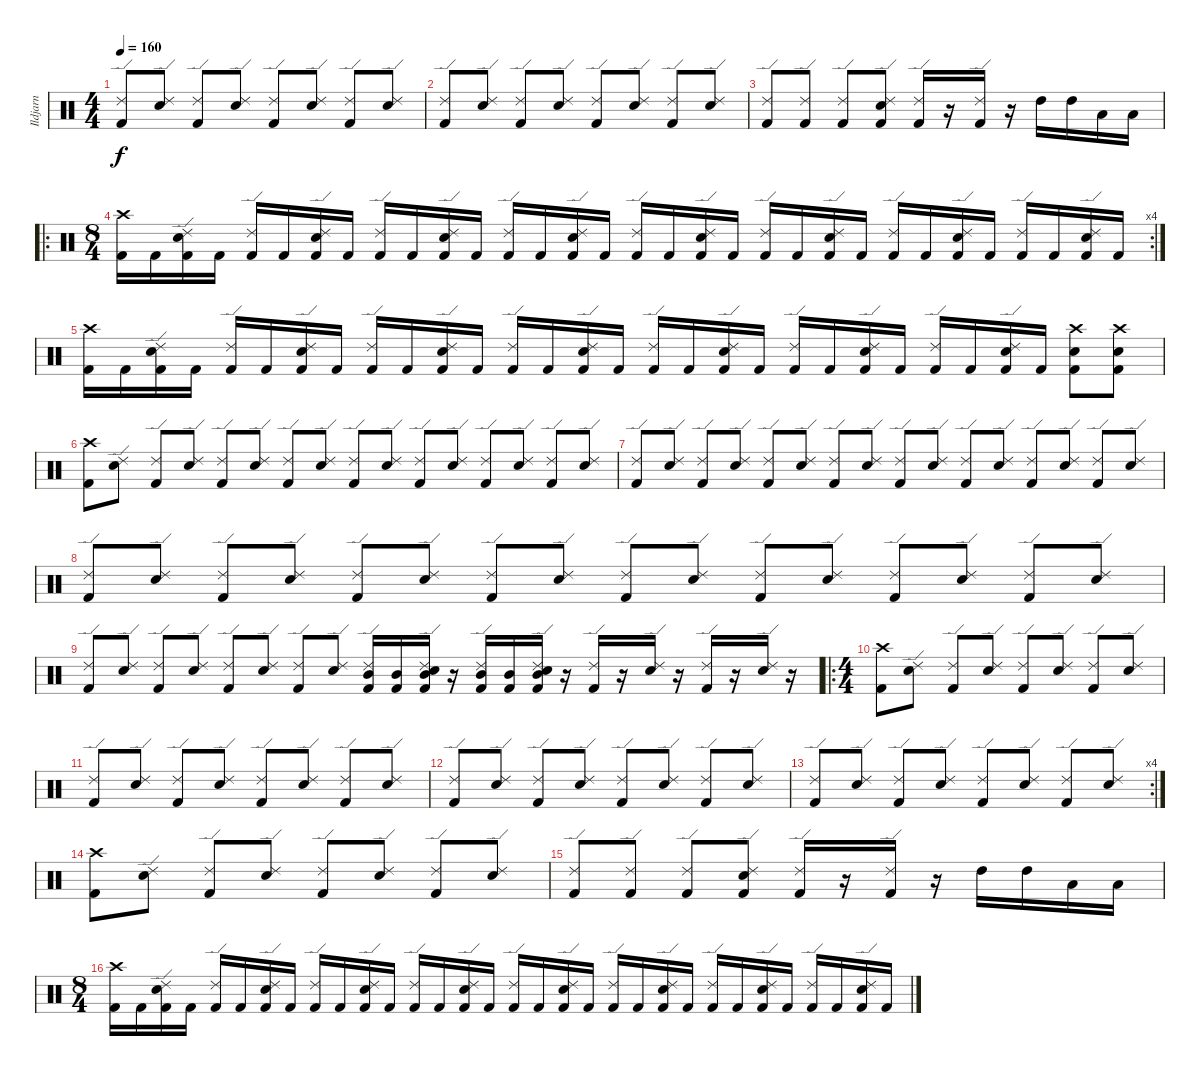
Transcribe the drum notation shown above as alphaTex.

\track ("Ildjarn" "Ildjarn") {instrument percussion}
\staff {score}
\articulation defaults
\ts (4 4)
\tempo 160
\clef neutral
\ks c
("Ride (edge) 2" "Kick (hit) 2").8{dy f} ("Ride (edge) 2" "Snare (hit) 2").8 ("Ride (edge) 2" "Kick (hit) 2").8 ("Ride (edge) 2" "Snare (hit) 2").8 ("Ride (edge) 2" "Kick (hit) 2").8 ("Ride (edge) 2" "Snare (hit) 2").8 ("Ride (edge) 2" "Kick (hit) 2").8 ("Ride (edge) 2" "Snare (hit) 2").8 |
("Ride (edge) 2" "Kick (hit) 2").8 ("Ride (edge) 2" "Snare (hit) 2").8 ("Ride (edge) 2" "Kick (hit) 2").8 ("Ride (edge) 2" "Snare (hit) 2").8 ("Ride (edge) 2" "Kick (hit) 2").8 ("Ride (edge) 2" "Snare (hit) 2").8 ("Ride (edge) 2" "Kick (hit) 2").8 ("Ride (edge) 2" "Snare (hit) 2").8 |
("Ride (edge) 2" "Kick (hit) 2").8 ("Ride (edge) 2" "Kick (hit) 2").8 ("Ride (edge) 2" "Kick (hit) 2").8 ("Ride (edge) 2" "Snare (hit) 2" "Kick (hit) 2").8 ("Ride (edge) 2" "Kick (hit) 2").16 r.16 ("Ride (edge) 2" "Kick (hit) 2").16 r.16 "High Tom (hit)".16 "High Tom (hit)".16 "Low Tom (hit)".16 "Low Tom (hit)".16 |
\ro
\rc 4
\ts (8 4)
("Crash high (hit)" "Kick (hit) 2").16 "Kick (hit) 2".16 ("Ride (edge) 2" "Snare (hit) 2" "Kick (hit) 2").16 "Kick (hit) 2".16 ("Ride (edge) 2" "Kick (hit) 2").16 "Kick (hit) 2".16 ("Ride (edge) 2" "Snare (hit) 2" "Kick (hit) 2").16 "Kick (hit) 2".16 ("Ride (edge) 2" "Kick (hit) 2").16 "Kick (hit) 2".16 ("Ride (edge) 2" "Snare (hit) 2" "Kick (hit) 2").16 "Kick (hit) 2".16 ("Ride (edge) 2" "Kick (hit) 2").16 "Kick (hit) 2".16 ("Ride (edge) 2" "Snare (hit) 2" "Kick (hit) 2").16 "Kick (hit) 2".16 ("Ride (edge) 2" "Kick (hit) 2").16 "Kick (hit) 2".16 ("Ride (edge) 2" "Snare (hit) 2" "Kick (hit) 2").16 "Kick (hit) 2".16 ("Ride (edge) 2" "Kick (hit) 2").16 "Kick (hit) 2".16 ("Ride (edge) 2" "Snare (hit) 2" "Kick (hit) 2").16 "Kick (hit) 2".16 ("Ride (edge) 2" "Kick (hit) 2").16 "Kick (hit) 2".16 ("Ride (edge) 2" "Snare (hit) 2" "Kick (hit) 2").16 "Kick (hit) 2".16 ("Ride (edge) 2" "Kick (hit) 2").16 "Kick (hit) 2".16 ("Ride (edge) 2" "Snare (hit) 2" "Kick (hit) 2").16 "Kick (hit) 2".16 |
("Crash high (hit)" "Kick (hit) 2").16 "Kick (hit) 2".16 ("Ride (edge) 2" "Snare (hit) 2" "Kick (hit) 2").16 "Kick (hit) 2".16 ("Ride (edge) 2" "Kick (hit) 2").16 "Kick (hit) 2".16 ("Ride (edge) 2" "Snare (hit) 2" "Kick (hit) 2").16 "Kick (hit) 2".16 ("Ride (edge) 2" "Kick (hit) 2").16 "Kick (hit) 2".16 ("Ride (edge) 2" "Snare (hit) 2" "Kick (hit) 2").16 "Kick (hit) 2".16 ("Ride (edge) 2" "Kick (hit) 2").16 "Kick (hit) 2".16 ("Ride (edge) 2" "Snare (hit) 2" "Kick (hit) 2").16 "Kick (hit) 2".16 ("Ride (edge) 2" "Kick (hit) 2").16 "Kick (hit) 2".16 ("Ride (edge) 2" "Snare (hit) 2" "Kick (hit) 2").16 "Kick (hit) 2".16 ("Ride (edge) 2" "Kick (hit) 2").16 "Kick (hit) 2".16 ("Ride (edge) 2" "Snare (hit) 2" "Kick (hit) 2").16 "Kick (hit) 2".16 ("Ride (edge) 2" "Kick (hit) 2").16 "Kick (hit) 2".16 ("Ride (edge) 2" "Snare (hit) 2" "Kick (hit) 2").16 "Kick (hit) 2".16 ("Crash high (hit)" "Snare (hit) 2" "Kick (hit) 2").8 ("Crash high (hit)" "Snare (hit) 2" "Kick (hit) 2").8 |
("Crash high (hit)" "Kick (hit) 2").8 ("Ride (edge) 2" "Snare (hit) 2").8 ("Ride (edge) 2" "Kick (hit) 2").8 ("Ride (edge) 2" "Snare (hit) 2").8 ("Ride (edge) 2" "Kick (hit) 2").8 ("Ride (edge) 2" "Snare (hit) 2").8 ("Ride (edge) 2" "Kick (hit) 2").8 ("Ride (edge) 2" "Snare (hit) 2").8 ("Ride (edge) 2" "Kick (hit) 2").8 ("Ride (edge) 2" "Snare (hit) 2").8 ("Ride (edge) 2" "Kick (hit) 2").8 ("Ride (edge) 2" "Snare (hit) 2").8 ("Ride (edge) 2" "Kick (hit) 2").8 ("Ride (edge) 2" "Snare (hit) 2").8 ("Ride (edge) 2" "Kick (hit) 2").8 ("Ride (edge) 2" "Snare (hit) 2").8 |
("Ride (edge) 2" "Kick (hit) 2").8 ("Ride (edge) 2" "Snare (hit) 2").8 ("Ride (edge) 2" "Kick (hit) 2").8 ("Ride (edge) 2" "Snare (hit) 2").8 ("Ride (edge) 2" "Kick (hit) 2").8 ("Ride (edge) 2" "Snare (hit) 2").8 ("Ride (edge) 2" "Kick (hit) 2").8 ("Ride (edge) 2" "Snare (hit) 2").8 ("Ride (edge) 2" "Kick (hit) 2").8 ("Ride (edge) 2" "Snare (hit) 2").8 ("Ride (edge) 2" "Kick (hit) 2").8 ("Ride (edge) 2" "Snare (hit) 2").8 ("Ride (edge) 2" "Kick (hit) 2").8 ("Ride (edge) 2" "Snare (hit) 2").8 ("Ride (edge) 2" "Kick (hit) 2").8 ("Ride (edge) 2" "Snare (hit) 2").8 |
("Ride (edge) 2" "Kick (hit) 2").8 ("Ride (edge) 2" "Snare (hit) 2").8 ("Ride (edge) 2" "Kick (hit) 2").8 ("Ride (edge) 2" "Snare (hit) 2").8 ("Ride (edge) 2" "Kick (hit) 2").8 ("Ride (edge) 2" "Snare (hit) 2").8 ("Ride (edge) 2" "Kick (hit) 2").8 ("Ride (edge) 2" "Snare (hit) 2").8 ("Ride (edge) 2" "Kick (hit) 2").8 ("Ride (edge) 2" "Snare (hit) 2").8 ("Ride (edge) 2" "Kick (hit) 2").8 ("Ride (edge) 2" "Snare (hit) 2").8 ("Ride (edge) 2" "Kick (hit) 2").8 ("Ride (edge) 2" "Snare (hit) 2").8 ("Ride (edge) 2" "Kick (hit) 2").8 ("Ride (edge) 2" "Snare (hit) 2").8 |
("Ride (edge) 2" "Kick (hit) 2").8 ("Ride (edge) 2" "Snare (hit) 2").8 ("Ride (edge) 2" "Kick (hit) 2").8 ("Ride (edge) 2" "Snare (hit) 2").8 ("Ride (edge) 2" "Kick (hit) 2").8 ("Ride (edge) 2" "Snare (hit) 2").8 ("Ride (edge) 2" "Kick (hit) 2").8 ("Ride (edge) 2" "Snare (hit) 2").8 ("Mid Tom (hit)" "Ride (edge) 2" "Kick (hit) 2").16 ("Mid Tom (hit)" "Kick (hit) 2").16 ("Mid Tom (hit)" "Ride (edge) 2" "Snare (hit) 2" "Kick (hit) 2").16 r.16 ("Mid Tom (hit)" "Ride (edge) 2" "Kick (hit) 2").16 ("Mid Tom (hit)" "Kick (hit) 2").16 ("Mid Tom (hit)" "Ride (edge) 2" "Snare (hit) 2" "Kick (hit) 2").16 r.16 ("Ride (edge) 2" "Kick (hit) 2").16 r.16 ("Ride (edge) 2" "Snare (hit) 2").16 r.16 ("Ride (edge) 2" "Kick (hit) 2").16 r.16 ("Ride (edge) 2" "Snare (hit) 2").16 r.16 |
\ro
\ts (4 4)
("Crash high (hit)" "Kick (hit) 2").8 ("Ride (edge) 2" "Snare (hit) 2").8 ("Ride (edge) 2" "Kick (hit) 2").8 ("Ride (edge) 2" "Snare (hit) 2").8 ("Ride (edge) 2" "Kick (hit) 2").8 ("Ride (edge) 2" "Snare (hit) 2").8 ("Ride (edge) 2" "Kick (hit) 2").8 ("Ride (edge) 2" "Snare (hit) 2").8 |
("Ride (edge) 2" "Kick (hit) 2").8 ("Ride (edge) 2" "Snare (hit) 2").8 ("Ride (edge) 2" "Kick (hit) 2").8 ("Ride (edge) 2" "Snare (hit) 2").8 ("Ride (edge) 2" "Kick (hit) 2").8 ("Ride (edge) 2" "Snare (hit) 2").8 ("Ride (edge) 2" "Kick (hit) 2").8 ("Ride (edge) 2" "Snare (hit) 2").8 |
("Ride (edge) 2" "Kick (hit) 2").8 ("Ride (edge) 2" "Snare (hit) 2").8 ("Ride (edge) 2" "Kick (hit) 2").8 ("Ride (edge) 2" "Snare (hit) 2").8 ("Ride (edge) 2" "Kick (hit) 2").8 ("Ride (edge) 2" "Snare (hit) 2").8 ("Ride (edge) 2" "Kick (hit) 2").8 ("Ride (edge) 2" "Snare (hit) 2").8 |
\rc 4
("Ride (edge) 2" "Kick (hit) 2").8 ("Ride (edge) 2" "Snare (hit) 2").8 ("Ride (edge) 2" "Kick (hit) 2").8 ("Ride (edge) 2" "Snare (hit) 2").8 ("Ride (edge) 2" "Kick (hit) 2").8 ("Ride (edge) 2" "Snare (hit) 2").8 ("Ride (edge) 2" "Kick (hit) 2").8 ("Ride (edge) 2" "Snare (hit) 2").8 |
("Crash high (hit)" "Kick (hit) 2").8 ("Ride (edge) 2" "Snare (hit) 2").8 ("Ride (edge) 2" "Kick (hit) 2").8 ("Ride (edge) 2" "Snare (hit) 2").8 ("Ride (edge) 2" "Kick (hit) 2").8 ("Ride (edge) 2" "Snare (hit) 2").8 ("Ride (edge) 2" "Kick (hit) 2").8 ("Ride (edge) 2" "Snare (hit) 2").8 |
("Ride (edge) 2" "Kick (hit) 2").8 ("Ride (edge) 2" "Kick (hit) 2").8 ("Ride (edge) 2" "Kick (hit) 2").8 ("Ride (edge) 2" "Snare (hit) 2" "Kick (hit) 2").8 ("Ride (edge) 2" "Kick (hit) 2").16 r.16 ("Ride (edge) 2" "Kick (hit) 2").16 r.16 "High Tom (hit)".16 "High Tom (hit)".16 "Low Tom (hit)".16 "Low Tom (hit)".16 |
\ts (8 4)
("Crash high (hit)" "Kick (hit) 2").16 "Kick (hit) 2".16 ("Ride (edge) 2" "Snare (hit) 2" "Kick (hit) 2").16 "Kick (hit) 2".16 ("Ride (edge) 2" "Kick (hit) 2").16 "Kick (hit) 2".16 ("Ride (edge) 2" "Snare (hit) 2" "Kick (hit) 2").16 "Kick (hit) 2".16 ("Ride (edge) 2" "Kick (hit) 2").16 "Kick (hit) 2".16 ("Ride (edge) 2" "Snare (hit) 2" "Kick (hit) 2").16 "Kick (hit) 2".16 ("Ride (edge) 2" "Kick (hit) 2").16 "Kick (hit) 2".16 ("Ride (edge) 2" "Snare (hit) 2" "Kick (hit) 2").16 "Kick (hit) 2".16 ("Ride (edge) 2" "Kick (hit) 2").16 "Kick (hit) 2".16 ("Ride (edge) 2" "Snare (hit) 2" "Kick (hit) 2").16 "Kick (hit) 2".16 ("Ride (edge) 2" "Kick (hit) 2").16 "Kick (hit) 2".16 ("Ride (edge) 2" "Snare (hit) 2" "Kick (hit) 2").16 "Kick (hit) 2".16 ("Ride (edge) 2" "Kick (hit) 2").16 "Kick (hit) 2".16 ("Ride (edge) 2" "Snare (hit) 2" "Kick (hit) 2").16 "Kick (hit) 2".16 ("Ride (edge) 2" "Kick (hit) 2").16 "Kick (hit) 2".16 ("Ride (edge) 2" "Snare (hit) 2" "Kick (hit) 2").16 "Kick (hit) 2".16
